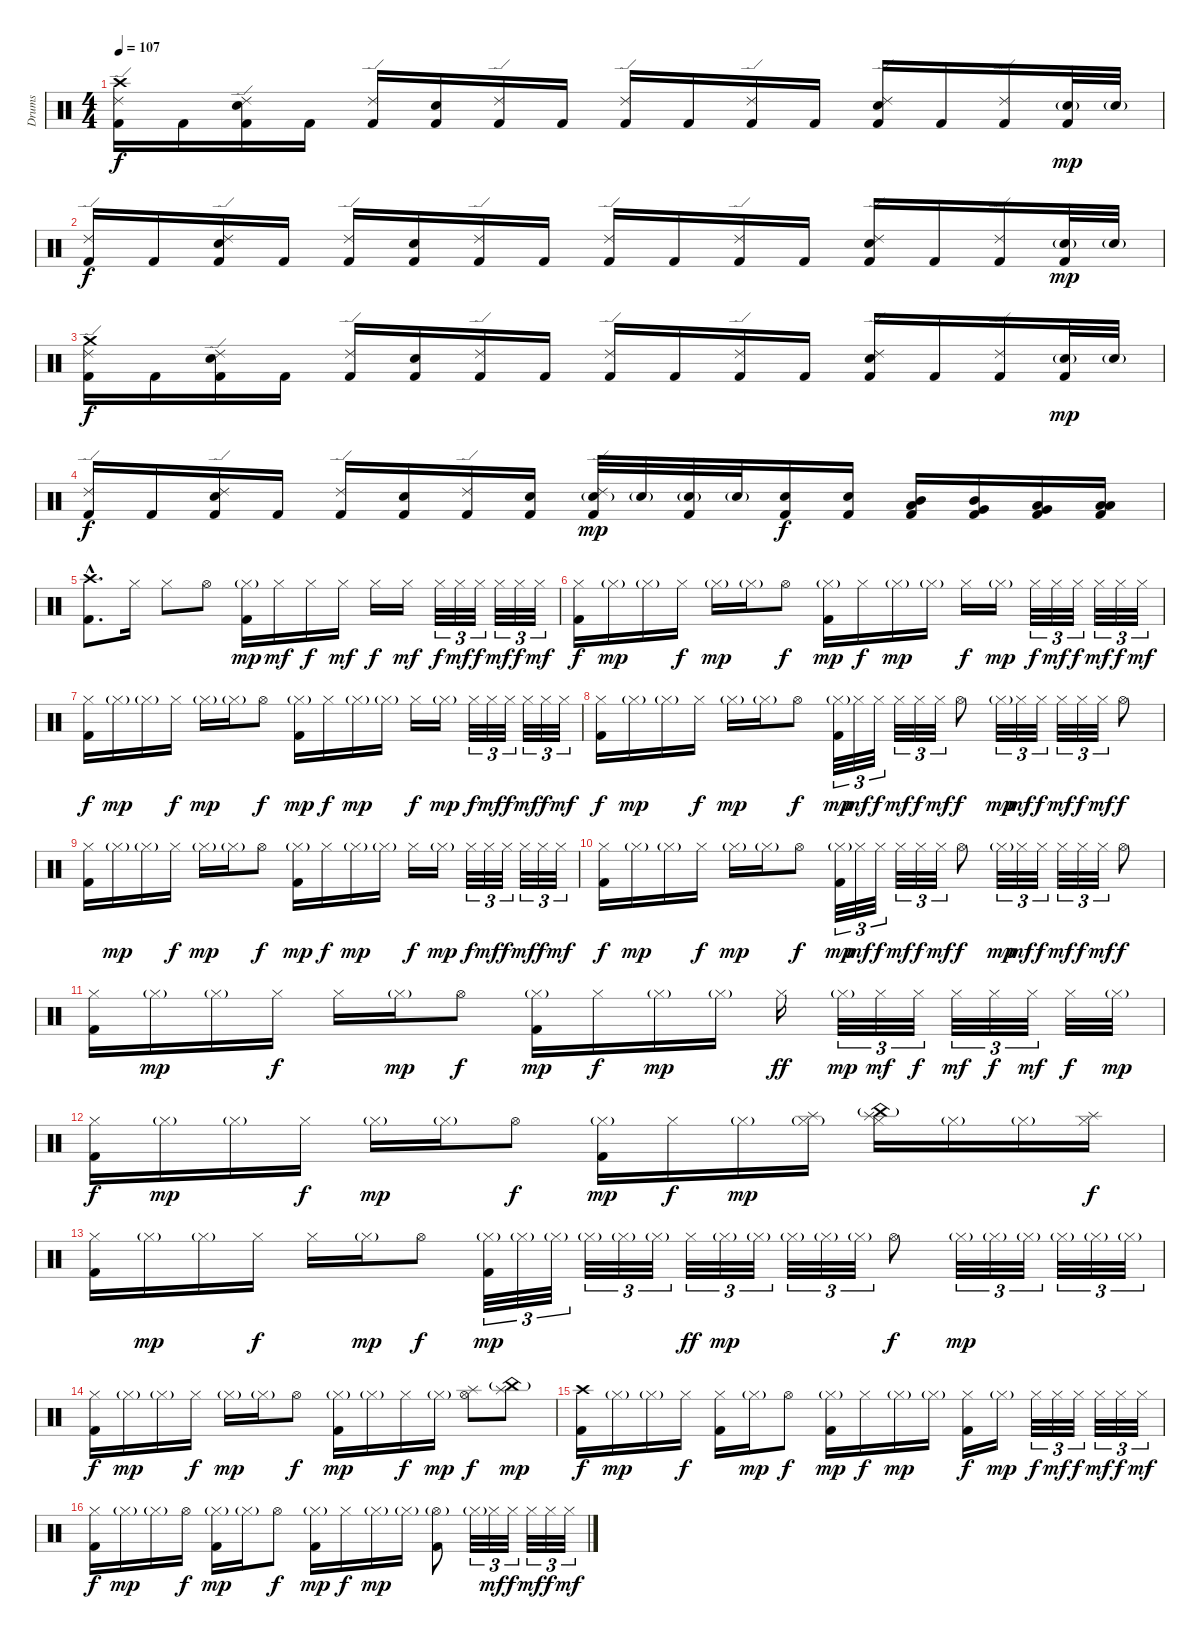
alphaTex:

\track ("Drums" "Drums") {instrument percussion}
\staff {score}
\articulation defaults
\ts (4 4)
\tempo 107
\clef neutral
\ks c
("Kick (hit) 2" "Ride (edge) 2" "Crash high (hit)").16{dy f} "Kick (hit) 2".16 ("Kick (hit) 2" "Electric Snare (hit)" "Ride (edge) 2").16 "Kick (hit) 2".16 ("Kick (hit) 2" "Ride (edge) 2").16 ("Kick (hit) 2" "Electric Snare (hit)").16 ("Kick (hit) 2" "Ride (edge) 2").16 "Kick (hit) 2".16 ("Kick (hit) 2" "Ride (edge) 2").16 "Kick (hit) 2".16 ("Kick (hit) 2" "Ride (edge) 2").16 "Kick (hit) 2".16 ("Kick (hit) 2" "Electric Snare (hit)" "Ride (edge) 2").16 "Kick (hit) 2".16 ("Kick (hit) 2" "Ride (edge) 2").16 ("Kick (hit) 2" "Electric Snare (hit)"{g}).32{dy mp} "Electric Snare (hit)"{g}.32 |
("Kick (hit) 2" "Ride (edge) 2").16{dy f} "Kick (hit) 2".16 ("Kick (hit) 2" "Electric Snare (hit)" "Ride (edge) 2").16 "Kick (hit) 2".16 ("Kick (hit) 2" "Ride (edge) 2").16 ("Kick (hit) 2" "Electric Snare (hit)").16 ("Kick (hit) 2" "Ride (edge) 2").16 "Kick (hit) 2".16 ("Kick (hit) 2" "Ride (edge) 2").16 "Kick (hit) 2".16 ("Kick (hit) 2" "Ride (edge) 2").16 "Kick (hit) 2".16 ("Kick (hit) 2" "Electric Snare (hit)" "Ride (edge) 2").16 "Kick (hit) 2".16 ("Kick (hit) 2" "Ride (edge) 2").16 ("Kick (hit) 2" "Electric Snare (hit)"{g}).32{dy mp} "Electric Snare (hit)"{g}.32 |
("Kick (hit) 2" "Ride (edge) 2" "Crash medium (hit)").16{dy f} "Kick (hit) 2".16 ("Kick (hit) 2" "Electric Snare (hit)" "Ride (edge) 2").16 "Kick (hit) 2".16 ("Kick (hit) 2" "Ride (edge) 2").16 ("Kick (hit) 2" "Electric Snare (hit)").16 ("Kick (hit) 2" "Ride (edge) 2").16 "Kick (hit) 2".16 ("Kick (hit) 2" "Ride (edge) 2").16 "Kick (hit) 2".16 ("Kick (hit) 2" "Ride (edge) 2").16 "Kick (hit) 2".16 ("Kick (hit) 2" "Electric Snare (hit)" "Ride (edge) 2").16 "Kick (hit) 2".16 ("Kick (hit) 2" "Ride (edge) 2").16 ("Kick (hit) 2" "Electric Snare (hit)"{g}).32{dy mp} "Electric Snare (hit)"{g}.32 |
("Kick (hit) 2" "Ride (edge) 2").16{dy f} "Kick (hit) 2".16 ("Kick (hit) 2" "Electric Snare (hit)" "Ride (edge) 2").16 "Kick (hit) 2".16 ("Kick (hit) 2" "Ride (edge) 2").16 ("Kick (hit) 2" "Electric Snare (hit)").16 ("Kick (hit) 2" "Ride (edge) 2").16 ("Kick (hit) 2" "Electric Snare (hit)").16 ("Kick (hit) 2" "Electric Snare (hit)"{g} "Ride (edge) 2").32{dy mp} "Electric Snare (hit)"{g}.32 ("Kick (hit) 2" "Electric Snare (hit)"{g}).32 "Electric Snare (hit)"{g}.32 ("Kick (hit) 2" "Electric Snare (hit)").16{dy f} ("Kick (hit) 2" "Electric Snare (hit)").16 ("Kick (hit) 2" "Mid Tom (hit)" "Low Tom (hit)").16 ("Kick (hit) 2" "Mid Tom (hit)" "Very Low Tom (hit)").16 ("Kick (hit) 2" "Low Tom (hit)" "Very Low Tom (hit)").16 ("Kick (hit) 2" "Low Tom (hit)" "Low Floor Tom (hit)").16 |
("Kick (hit) 2"{hac} "Crash high (hit)"{hac}).8{d} "Hi-Hat (closed)".16 "Hi-Hat (closed)".8 "Hi-Hat (open)".8 ("Kick (hit) 2" "Hi-Hat (closed)"{g}).16{dy mp} "Hi-Hat (closed)".16{dy mf} "Hi-Hat (closed)".16{dy f} "Hi-Hat (closed)".16{dy mf} "Hi-Hat (closed)".16{dy f} "Hi-Hat (closed)".16{dy mf} "Hi-Hat (closed)".32{tu (3 2) dy f} "Hi-Hat (closed)".32{tu (3 2) dy mf} "Hi-Hat (closed)".32{tu (3 2) dy f} "Hi-Hat (closed)".32{tu (3 2) dy mf} "Hi-Hat (closed)".32{tu (3 2) dy f} "Hi-Hat (closed)".32{tu (3 2) dy mf} |
("Kick (hit) 2" "Hi-Hat (closed)").16{dy f} "Hi-Hat (closed)"{g}.16{dy mp} "Hi-Hat (closed)"{g}.16 "Hi-Hat (closed)".16{dy f} "Hi-Hat (closed)"{g}.16{dy mp} "Hi-Hat (closed)"{g}.16 "Hi-Hat (open)".8{dy f} ("Kick (hit) 2" "Hi-Hat (closed)"{g}).16{dy mp} "Hi-Hat (closed)".16{dy f} "Hi-Hat (closed)"{g}.16{dy mp} "Hi-Hat (closed)"{g}.16 "Hi-Hat (closed)".16{dy f} "Hi-Hat (closed)"{g}.16{dy mp} "Hi-Hat (closed)".32{tu (3 2) dy f} "Hi-Hat (closed)".32{tu (3 2) dy mf} "Hi-Hat (closed)".32{tu (3 2) dy f} "Hi-Hat (closed)".32{tu (3 2) dy mf} "Hi-Hat (closed)".32{tu (3 2) dy f} "Hi-Hat (closed)".32{tu (3 2) dy mf} |
("Kick (hit) 2" "Hi-Hat (closed)").16{dy f} "Hi-Hat (closed)"{g}.16{dy mp} "Hi-Hat (closed)"{g}.16 "Hi-Hat (closed)".16{dy f} "Hi-Hat (closed)"{g}.16{dy mp} "Hi-Hat (closed)"{g}.16 "Hi-Hat (open)".8{dy f} ("Kick (hit) 2" "Hi-Hat (closed)"{g}).16{dy mp} "Hi-Hat (closed)".16{dy f} "Hi-Hat (closed)"{g}.16{dy mp} "Hi-Hat (closed)"{g}.16 "Hi-Hat (closed)".16{dy f} "Hi-Hat (closed)"{g}.16{dy mp} "Hi-Hat (closed)".32{tu (3 2) dy f} "Hi-Hat (closed)".32{tu (3 2) dy mf} "Hi-Hat (closed)".32{tu (3 2) dy f} "Hi-Hat (closed)".32{tu (3 2) dy mf} "Hi-Hat (closed)".32{tu (3 2) dy f} "Hi-Hat (closed)".32{tu (3 2) dy mf} |
("Kick (hit) 2" "Hi-Hat (closed)").16{dy f} "Hi-Hat (closed)"{g}.16{dy mp} "Hi-Hat (closed)"{g}.16 "Hi-Hat (closed)".16{dy f} "Hi-Hat (closed)"{g}.16{dy mp} "Hi-Hat (closed)"{g}.16 "Hi-Hat (open)".8{dy f} ("Kick (hit) 2" "Hi-Hat (closed)"{g}).32{tu (3 2) dy mp} "Hi-Hat (closed)".32{tu (3 2) dy mf} "Hi-Hat (closed)".32{tu (3 2) dy f} "Hi-Hat (closed)".32{tu (3 2) dy mf} "Hi-Hat (closed)".32{tu (3 2) dy f} "Hi-Hat (closed)".32{tu (3 2) dy mf} "Hi-Hat (open)".8{dy f} "Hi-Hat (closed)"{g}.32{tu (3 2) dy mp} "Hi-Hat (closed)".32{tu (3 2) dy mf} "Hi-Hat (closed)".32{tu (3 2) dy f} "Hi-Hat (closed)".32{tu (3 2) dy mf} "Hi-Hat (closed)".32{tu (3 2) dy f} "Hi-Hat (closed)".32{tu (3 2) dy mf} "Hi-Hat (open)".8{dy f} |
("Kick (hit) 2" "Hi-Hat (closed)").16 "Hi-Hat (closed)"{g}.16{dy mp} "Hi-Hat (closed)"{g}.16 "Hi-Hat (closed)".16{dy f} "Hi-Hat (closed)"{g}.16{dy mp} "Hi-Hat (closed)"{g}.16 "Hi-Hat (open)".8{dy f} ("Kick (hit) 2" "Hi-Hat (closed)"{g}).16{dy mp} "Hi-Hat (closed)".16{dy f} "Hi-Hat (closed)"{g}.16{dy mp} "Hi-Hat (closed)"{g}.16 "Hi-Hat (closed)".16{dy f} "Hi-Hat (closed)"{g}.16{dy mp} "Hi-Hat (closed)".32{tu (3 2) dy f} "Hi-Hat (closed)".32{tu (3 2) dy mf} "Hi-Hat (closed)".32{tu (3 2) dy f} "Hi-Hat (closed)".32{tu (3 2) dy mf} "Hi-Hat (closed)".32{tu (3 2) dy f} "Hi-Hat (closed)".32{tu (3 2) dy mf} |
("Kick (hit) 2" "Hi-Hat (closed)").16{dy f} "Hi-Hat (closed)"{g}.16{dy mp} "Hi-Hat (closed)"{g}.16 "Hi-Hat (closed)".16{dy f} "Hi-Hat (closed)"{g}.16{dy mp} "Hi-Hat (closed)"{g}.16 "Hi-Hat (open)".8{dy f} ("Kick (hit) 2" "Hi-Hat (closed)"{g}).32{tu (3 2) dy mp} "Hi-Hat (closed)".32{tu (3 2) dy mf} "Hi-Hat (closed)".32{tu (3 2) dy f} "Hi-Hat (closed)".32{tu (3 2) dy mf} "Hi-Hat (closed)".32{tu (3 2) dy f} "Hi-Hat (closed)".32{tu (3 2) dy mf} "Hi-Hat (open)".8{dy f} "Hi-Hat (closed)"{g}.32{tu (3 2) dy mp} "Hi-Hat (closed)".32{tu (3 2) dy mf} "Hi-Hat (closed)".32{tu (3 2) dy f} "Hi-Hat (closed)".32{tu (3 2) dy mf} "Hi-Hat (closed)".32{tu (3 2) dy f} "Hi-Hat (closed)".32{tu (3 2) dy mf} "Hi-Hat (open)".8{dy f} |
("Kick (hit) 2" "Hi-Hat (closed)").16 "Hi-Hat (closed)"{g}.16{dy mp} "Hi-Hat (closed)"{g}.16 "Hi-Hat (closed)".16{dy f} "Hi-Hat (closed)".16 "Hi-Hat (closed)"{g}.16{dy mp} "Hi-Hat (open)".8{dy f} ("Kick (hit) 2" "Hi-Hat (closed)"{g}).16{dy mp} "Hi-Hat (closed)".16{dy f} "Hi-Hat (closed)"{g}.16{dy mp} "Hi-Hat (closed)"{g}.16 "Hi-Hat (closed)".16{dy ff} "Hi-Hat (closed)"{g}.32{tu (3 2) dy mp} "Hi-Hat (closed)".32{tu (3 2) dy mf} "Hi-Hat (closed)".32{tu (3 2) dy f} "Hi-Hat (closed)".32{tu (3 2) dy mf} "Hi-Hat (closed)".32{tu (3 2) dy f} "Hi-Hat (closed)".32{tu (3 2) dy mf} "Hi-Hat (closed)".32{dy f} "Hi-Hat (closed)"{g}.32{dy mp} |
("Kick (hit) 2" "Hi-Hat (closed)").16{dy f} "Hi-Hat (closed)"{g}.16{dy mp} "Hi-Hat (closed)"{g}.16 "Hi-Hat (closed)".16{dy f} "Hi-Hat (closed)"{g}.16{dy mp} "Hi-Hat (closed)"{g}.16 "Hi-Hat (open)".8{dy f} ("Kick (hit) 2" "Hi-Hat (closed)"{g}).16{dy mp} "Hi-Hat (closed)".16{dy f} "Hi-Hat (closed)"{g}.16{dy mp} ("Hi-Hat (closed)"{g} "Splash (hit)").16 ("Hi-Hat (closed)" "Splash (hit)" "China (hit)"{g}).16 "Hi-Hat (closed)"{g}.16 "Hi-Hat (closed)"{g}.16 ("Hi-Hat (closed)" "Splash (hit)").16{dy f} |
("Kick (hit) 2" "Hi-Hat (closed)").16 "Hi-Hat (closed)"{g}.16{dy mp} "Hi-Hat (closed)"{g}.16 "Hi-Hat (closed)".16{dy f} "Hi-Hat (closed)".16 "Hi-Hat (closed)"{g}.16{dy mp} "Hi-Hat (open)".8{dy f} ("Kick (hit) 2" "Hi-Hat (closed)"{g}).32{tu (3 2) dy mp} "Hi-Hat (closed)"{g}.32{tu (3 2)} "Hi-Hat (closed)"{g}.32{tu (3 2)} "Hi-Hat (closed)"{g}.32{tu (3 2)} "Hi-Hat (closed)"{g}.32{tu (3 2)} "Hi-Hat (closed)"{g}.32{tu (3 2)} "Hi-Hat (closed)".32{tu (3 2) dy ff} "Hi-Hat (closed)"{g}.32{tu (3 2) dy mp} "Hi-Hat (closed)"{g}.32{tu (3 2)} "Hi-Hat (closed)"{g}.32{tu (3 2)} "Hi-Hat (closed)"{g}.32{tu (3 2)} "Hi-Hat (closed)"{g}.32{tu (3 2)} "Hi-Hat (open)".8{dy f} "Hi-Hat (closed)"{g}.32{tu (3 2) dy mp} "Hi-Hat (closed)"{g}.32{tu (3 2)} "Hi-Hat (closed)"{g}.32{tu (3 2)} "Hi-Hat (closed)"{g}.32{tu (3 2)} "Hi-Hat (closed)"{g}.32{tu (3 2)} "Hi-Hat (closed)"{g}.32{tu (3 2)} |
("Kick (hit) 2" "Hi-Hat (closed)").16{dy f} "Hi-Hat (closed)"{g}.16{dy mp} "Hi-Hat (closed)"{g}.16 "Hi-Hat (closed)".16{dy f} "Hi-Hat (closed)"{g}.16{dy mp} "Hi-Hat (closed)"{g}.16 "Hi-Hat (open)".8{dy f} ("Kick (hit) 2" "Hi-Hat (closed)"{g}).16{dy mp} "Hi-Hat (closed)"{g}.16 "Hi-Hat (closed)".16{dy f} "Hi-Hat (closed)"{g}.16{dy mp} ("Hi-Hat (open)" "Splash (hit)").8{dy f} ("Splash (hit)" "China (hit)"{g}).8{dy mp} |
("Kick (hit) 2" "Crash high (hit)").16{dy f} "Hi-Hat (closed)"{g}.16{dy mp} "Hi-Hat (closed)"{g}.16 "Hi-Hat (closed)".16{dy f} ("Kick (hit) 2" "Hi-Hat (closed)").16 "Hi-Hat (closed)"{g}.16{dy mp} "Hi-Hat (open)".8{dy f} ("Kick (hit) 2" "Hi-Hat (closed)"{g}).16{dy mp} "Hi-Hat (closed)".16{dy f} "Hi-Hat (closed)"{g}.16{dy mp} "Hi-Hat (closed)"{g}.16 ("Kick (hit) 2" "Hi-Hat (closed)").16{dy f} "Hi-Hat (closed)"{g}.16{dy mp} "Hi-Hat (closed)".32{tu (3 2) dy f} "Hi-Hat (closed)".32{tu (3 2) dy mf} "Hi-Hat (closed)".32{tu (3 2) dy f} "Hi-Hat (closed)".32{tu (3 2) dy mf} "Hi-Hat (closed)".32{tu (3 2) dy f} "Hi-Hat (closed)".32{tu (3 2) dy mf} |
("Kick (hit) 2" "Hi-Hat (closed)").16{dy f} "Hi-Hat (closed)"{g}.16{dy mp} "Hi-Hat (closed)"{g}.16 "Hi-Hat (open)".16{dy f} ("Kick (hit) 2" "Hi-Hat (closed)"{g}).16{dy mp} "Hi-Hat (closed)"{g}.16 "Hi-Hat (open)".8{dy f} ("Kick (hit) 2" "Hi-Hat (closed)"{g}).16{dy mp} "Hi-Hat (closed)".16{dy f} "Hi-Hat (closed)"{g}.16{dy mp} "Hi-Hat (closed)"{g}.16 ("Kick (hit) 2" "Hi-Hat (open)"{g}).8 "Hi-Hat (closed)"{g}.32{tu (3 2)} "Hi-Hat (closed)".32{tu (3 2) dy mf} "Hi-Hat (closed)".32{tu (3 2) dy f} "Hi-Hat (closed)".32{tu (3 2) dy mf} "Hi-Hat (closed)".32{tu (3 2) dy f} "Hi-Hat (closed)".32{tu (3 2) dy mf}
